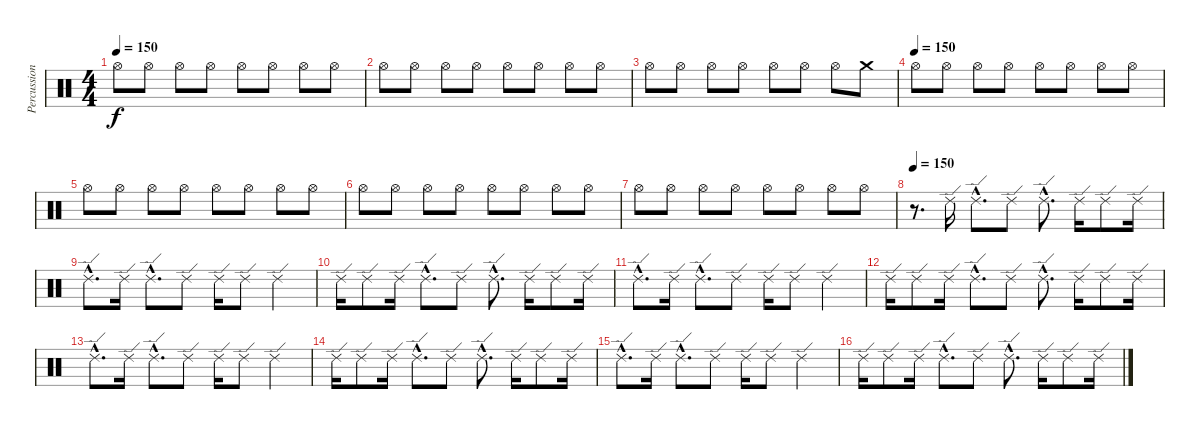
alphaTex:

\track ("Percussion" "Percussion") {instrument percussion}
\staff {score}
\articulation defaults
\ts (4 4)
\tempo 150
\clef neutral
\ks c "Hi-Hat (open)".8{dy f} "Hi-Hat (open)".8 "Hi-Hat (open)".8 "Hi-Hat (open)".8 "Hi-Hat (open)".8 "Hi-Hat (open)".8 "Hi-Hat (open)".8 "Hi-Hat (open)".8
|
"Hi-Hat (open)".8 "Hi-Hat (open)".8 "Hi-Hat (open)".8 "Hi-Hat (open)".8 "Hi-Hat (open)".8 "Hi-Hat (open)".8 "Hi-Hat (open)".8 "Hi-Hat (open)".8 |
"Hi-Hat (open)".8 "Hi-Hat (open)".8 "Hi-Hat (open)".8 "Hi-Hat (open)".8 "Hi-Hat (open)".8 "Hi-Hat (open)".8 "Hi-Hat (open)".8 "Crash medium (hit)".8 |
\tempo (150)
"Hi-Hat (open)".8 "Hi-Hat (open)".8 "Hi-Hat (open)".8 "Hi-Hat (open)".8 "Hi-Hat (open)".8 "Hi-Hat (open)".8 "Hi-Hat (open)".8 "Hi-Hat (open)".8 |
"Hi-Hat (open)".8 "Hi-Hat (open)".8 "Hi-Hat (open)".8 "Hi-Hat (open)".8 "Hi-Hat (open)".8 "Hi-Hat (open)".8 "Hi-Hat (open)".8 "Hi-Hat (open)".8 |
"Hi-Hat (open)".8 "Hi-Hat (open)".8 "Hi-Hat (open)".8 "Hi-Hat (open)".8 "Hi-Hat (open)".8 "Hi-Hat (open)".8 "Hi-Hat (open)".8 "Hi-Hat (open)".8 |
"Hi-Hat (open)".8 "Hi-Hat (open)".8 "Hi-Hat (open)".8 "Hi-Hat (open)".8 "Hi-Hat (open)".8 "Hi-Hat (open)".8 "Hi-Hat (open)".8 "Hi-Hat (open)".8 |
\tempo 150
r.8{d} "Ride (edge) 2".16 "Ride (edge) 2"{hac}.8{d} "Ride (edge) 2".8 "Ride (edge) 2"{hac}.8{d} "Ride (edge) 2".16 "Ride (edge) 2".8 "Ride (edge) 2".16 |
"Ride (edge) 2"{hac}.8{d} "Ride (edge) 2".16 "Ride (edge) 2"{hac}.8{d} "Ride (edge) 2".8 "Ride (edge) 2".16 "Ride (edge) 2".8 "Ride (edge) 2".4 |
"Ride (edge) 2".16 "Ride (edge) 2".8 "Ride (edge) 2".16 "Ride (edge) 2"{hac}.8{d} "Ride (edge) 2".8 "Ride (edge) 2"{hac}.8{d} "Ride (edge) 2".16 "Ride (edge) 2".8 "Ride (edge) 2".16 |
"Ride (edge) 2"{hac}.8{d} "Ride (edge) 2".16 "Ride (edge) 2"{hac}.8{d} "Ride (edge) 2".8 "Ride (edge) 2".16 "Ride (edge) 2".8 "Ride (edge) 2".4 |
"Ride (edge) 2".16 "Ride (edge) 2".8 "Ride (edge) 2".16 "Ride (edge) 2"{hac}.8{d} "Ride (edge) 2".8 "Ride (edge) 2"{hac}.8{d} "Ride (edge) 2".16 "Ride (edge) 2".8 "Ride (edge) 2".16 |
"Ride (edge) 2"{hac}.8{d} "Ride (edge) 2".16 "Ride (edge) 2"{hac}.8{d} "Ride (edge) 2".8 "Ride (edge) 2".16 "Ride (edge) 2".8 "Ride (edge) 2".4 |
"Ride (edge) 2".16 "Ride (edge) 2".8 "Ride (edge) 2".16 "Ride (edge) 2"{hac}.8{d} "Ride (edge) 2".8 "Ride (edge) 2"{hac}.8{d} "Ride (edge) 2".16 "Ride (edge) 2".8 "Ride (edge) 2".16 |
"Ride (edge) 2"{hac}.8{d} "Ride (edge) 2".16 "Ride (edge) 2"{hac}.8{d} "Ride (edge) 2".8 "Ride (edge) 2".16 "Ride (edge) 2".8 "Ride (edge) 2".4 |
"Ride (edge) 2".16 "Ride (edge) 2".8 "Ride (edge) 2".16 "Ride (edge) 2"{hac}.8{d} "Ride (edge) 2".8 "Ride (edge) 2"{hac}.8{d} "Ride (edge) 2".16 "Ride (edge) 2".8 "Ride (edge) 2".16
